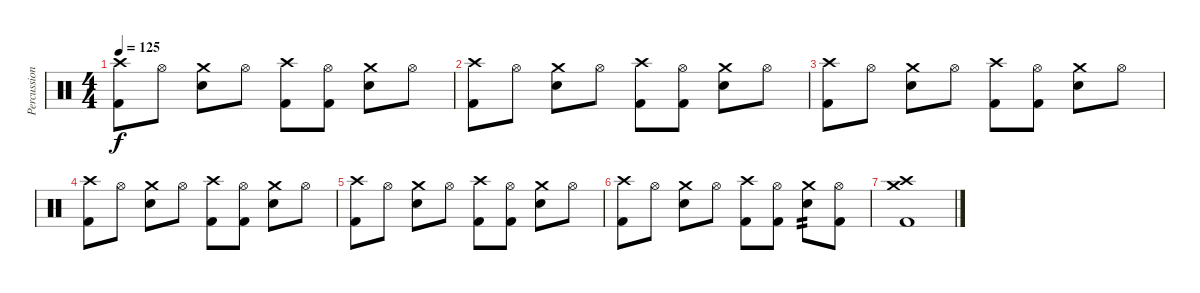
\track ("Percussion" "Percussion") {instrument percussion}
\staff {score}
\articulation defaults
\ts (4 4)
\tempo 125
\clef neutral
\ks c
("Crash high (hit)" "Kick (hit) 2").8{dy f} "Hi-Hat (open)".8 ("Crash medium (hit)" "Electric Snare (hit)").8 "Hi-Hat (open)".8 ("Crash high (hit)" "Kick (hit) 2").8 ("Hi-Hat (open)" "Kick (hit) 2").8 ("Crash medium (hit)" "Electric Snare (hit)").8 "Hi-Hat (open)".8 |
("Crash high (hit)" "Kick (hit) 2").8 "Hi-Hat (open)".8 ("Crash medium (hit)" "Electric Snare (hit)").8 "Hi-Hat (open)".8 ("Crash high (hit)" "Kick (hit) 2").8 ("Hi-Hat (open)" "Kick (hit) 2").8 ("Crash medium (hit)" "Electric Snare (hit)").8 "Hi-Hat (open)".8 |
("Crash high (hit)" "Kick (hit) 2").8 "Hi-Hat (open)".8 ("Crash medium (hit)" "Electric Snare (hit)").8 "Hi-Hat (open)".8 ("Crash high (hit)" "Kick (hit) 2").8 ("Hi-Hat (open)" "Kick (hit) 2").8 ("Crash medium (hit)" "Electric Snare (hit)").8 "Hi-Hat (open)".8 |
("Crash high (hit)" "Kick (hit) 2").8 "Hi-Hat (open)".8 ("Crash medium (hit)" "Electric Snare (hit)").8 "Hi-Hat (open)".8 ("Crash high (hit)" "Kick (hit) 2").8 ("Hi-Hat (open)" "Kick (hit) 2").8 ("Crash medium (hit)" "Electric Snare (hit)").8 "Hi-Hat (open)".8 |
("Crash high (hit)" "Kick (hit) 2").8 "Hi-Hat (open)".8 ("Crash medium (hit)" "Electric Snare (hit)").8 "Hi-Hat (open)".8 ("Crash high (hit)" "Kick (hit) 2").8 ("Hi-Hat (open)" "Kick (hit) 2").8 ("Crash medium (hit)" "Electric Snare (hit)").8 "Hi-Hat (open)".8 |
("Crash high (hit)" "Kick (hit) 2").8 "Hi-Hat (open)".8 ("Crash medium (hit)" "Electric Snare (hit)").8 "Hi-Hat (open)".8 ("Crash high (hit)" "Kick (hit) 2").8 ("Hi-Hat (open)" "Kick (hit) 2").8 ("Crash medium (hit)" "Electric Snare (hit)").8{tp 2} ("Hi-Hat (open)" "Kick (hit) 2").8 |
("Crash high (hit)" "Crash medium (hit)" "Kick (hit) 2").1
